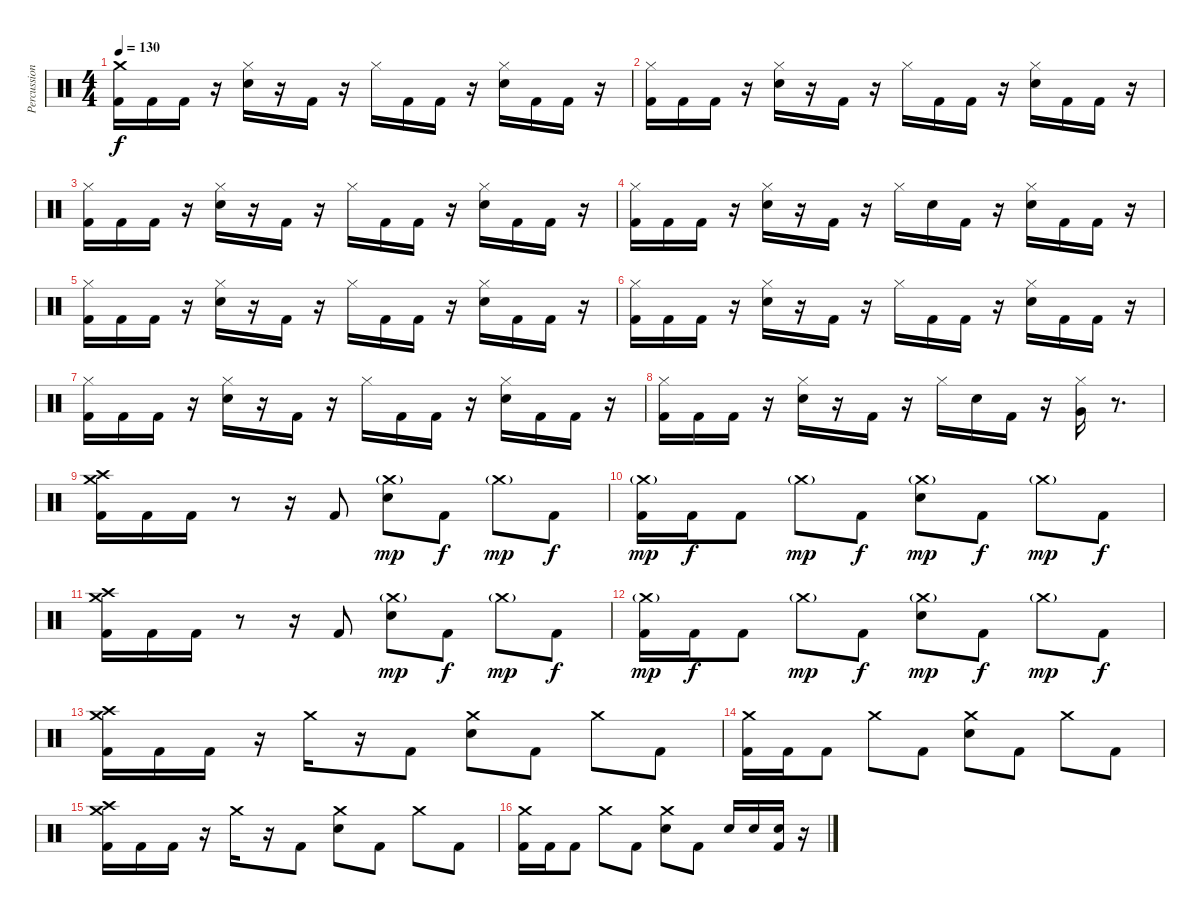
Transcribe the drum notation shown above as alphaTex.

\track ("Percussion" "Percussion") {instrument percussion}
\staff {score}
\articulation defaults
\ts (4 4)
\tempo 130
\clef neutral
\ks c
("Crash medium (hit)" "Kick (hit) 2").16{dy f} "Kick (hit) 2".16 "Kick (hit) 2".16 r.16 ("Hi-Hat (closed)" "Electric Snare (hit)").16 r.16 "Kick (hit) 2".16 r.16 "Hi-Hat (closed)".16 "Kick (hit) 2".16 "Kick (hit) 2".16 r.16 ("Hi-Hat (closed)" "Electric Snare (hit)").16 "Kick (hit) 2".16 "Kick (hit) 2".16 r.16 |
("Hi-Hat (closed)" "Kick (hit) 2").16 "Kick (hit) 2".16 "Kick (hit) 2".16 r.16 ("Hi-Hat (closed)" "Electric Snare (hit)").16 r.16 "Kick (hit) 2".16 r.16 "Hi-Hat (closed)".16 "Kick (hit) 2".16 "Kick (hit) 2".16 r.16 ("Hi-Hat (closed)" "Electric Snare (hit)").16 "Kick (hit) 2".16 "Kick (hit) 2".16 r.16 |
("Hi-Hat (closed)" "Kick (hit) 2").16 "Kick (hit) 2".16 "Kick (hit) 2".16 r.16 ("Hi-Hat (closed)" "Electric Snare (hit)").16 r.16 "Kick (hit) 2".16 r.16 "Hi-Hat (closed)".16 "Kick (hit) 2".16 "Kick (hit) 2".16 r.16 ("Hi-Hat (closed)" "Electric Snare (hit)").16 "Kick (hit) 2".16 "Kick (hit) 2".16 r.16 |
("Hi-Hat (closed)" "Kick (hit) 2").16 "Kick (hit) 2".16 "Kick (hit) 2".16 r.16 ("Hi-Hat (closed)" "Electric Snare (hit)").16 r.16 "Kick (hit) 2".16 r.16 "Hi-Hat (closed)".16 "Electric Snare (hit)".16 "Kick (hit) 2".16 r.16 ("Hi-Hat (closed)" "Electric Snare (hit)").16 "Kick (hit) 2".16 "Kick (hit) 2".16 r.16 |
("Hi-Hat (closed)" "Kick (hit) 2").16 "Kick (hit) 2".16 "Kick (hit) 2".16 r.16 ("Hi-Hat (closed)" "Electric Snare (hit)").16 r.16 "Kick (hit) 2".16 r.16 "Hi-Hat (closed)".16 "Kick (hit) 2".16 "Kick (hit) 2".16 r.16 ("Hi-Hat (closed)" "Electric Snare (hit)").16 "Kick (hit) 2".16 "Kick (hit) 2".16 r.16 |
("Hi-Hat (closed)" "Kick (hit) 2").16 "Kick (hit) 2".16 "Kick (hit) 2".16 r.16 ("Hi-Hat (closed)" "Electric Snare (hit)").16 r.16 "Kick (hit) 2".16 r.16 "Hi-Hat (closed)".16 "Kick (hit) 2".16 "Kick (hit) 2".16 r.16 ("Hi-Hat (closed)" "Electric Snare (hit)").16 "Kick (hit) 2".16 "Kick (hit) 2".16 r.16 |
("Hi-Hat (closed)" "Kick (hit) 2").16 "Kick (hit) 2".16 "Kick (hit) 2".16 r.16 ("Hi-Hat (closed)" "Electric Snare (hit)").16 r.16 "Kick (hit) 2".16 r.16 "Hi-Hat (closed)".16 "Kick (hit) 2".16 "Kick (hit) 2".16 r.16 ("Hi-Hat (closed)" "Electric Snare (hit)").16 "Kick (hit) 2".16 "Kick (hit) 2".16 r.16 |
("Hi-Hat (closed)" "Kick (hit) 2").16 "Kick (hit) 2".16 "Kick (hit) 2".16 r.16 ("Hi-Hat (closed)" "Electric Snare (hit)").16 r.16 "Kick (hit) 2".16 r.16 "Hi-Hat (closed)".16 "Electric Snare (hit)".16 "Kick (hit) 2".16 r.16 ("Hi-Hat (closed)" "Very Low Tom (hit)").16 r.8{d} |
("Crash medium (hit)" "Crash high (hit)" "Kick (hit) 2").16 "Kick (hit) 2".16 "Kick (hit) 2".16 r.8 r.16 "Kick (hit) 2".8 ("Crash medium (hit)"{g} "Electric Snare (hit)").8{dy mp} "Kick (hit) 2".8{dy f} "Crash medium (hit)"{g}.8{dy mp} "Kick (hit) 2".8{dy f} |
("Crash medium (hit)"{g} "Kick (hit) 2").16{dy mp} "Kick (hit) 2".16{dy f} "Kick (hit) 2".8 "Crash medium (hit)"{g}.8{dy mp} "Kick (hit) 2".8{dy f} ("Crash medium (hit)"{g} "Electric Snare (hit)").8{dy mp} "Kick (hit) 2".8{dy f} "Crash medium (hit)"{g}.8{dy mp} "Kick (hit) 2".8{dy f} |
("Crash medium (hit)" "Crash high (hit)" "Kick (hit) 2").16 "Kick (hit) 2".16 "Kick (hit) 2".16 r.8 r.16 "Kick (hit) 2".8 ("Crash medium (hit)"{g} "Electric Snare (hit)").8{dy mp} "Kick (hit) 2".8{dy f} "Crash medium (hit)"{g}.8{dy mp} "Kick (hit) 2".8{dy f} |
("Crash medium (hit)"{g} "Kick (hit) 2").16{dy mp} "Kick (hit) 2".16{dy f} "Kick (hit) 2".8 "Crash medium (hit)"{g}.8{dy mp} "Kick (hit) 2".8{dy f} ("Crash medium (hit)"{g} "Electric Snare (hit)").8{dy mp} "Kick (hit) 2".8{dy f} "Crash medium (hit)"{g}.8{dy mp} "Kick (hit) 2".8{dy f} |
("Crash medium (hit)" "Crash high (hit)" "Kick (hit) 2").16 "Kick (hit) 2".16 "Kick (hit) 2".16 r.16 "Crash medium (hit)".16 r.16 "Kick (hit) 2".8 ("Crash medium (hit)" "Electric Snare (hit)").8 "Kick (hit) 2".8 "Crash medium (hit)".8 "Kick (hit) 2".8 |
("Crash medium (hit)" "Kick (hit) 2").16 "Kick (hit) 2".16 "Kick (hit) 2".8 "Crash medium (hit)".8 "Kick (hit) 2".8 ("Crash medium (hit)" "Electric Snare (hit)").8 "Kick (hit) 2".8 "Crash medium (hit)".8 "Kick (hit) 2".8 |
("Crash medium (hit)" "Crash high (hit)" "Kick (hit) 2").16 "Kick (hit) 2".16 "Kick (hit) 2".16 r.16 "Crash medium (hit)".16 r.16 "Kick (hit) 2".8 ("Crash medium (hit)" "Electric Snare (hit)").8 "Kick (hit) 2".8 "Crash medium (hit)".8 "Kick (hit) 2".8 |
("Crash medium (hit)" "Kick (hit) 2").16 "Kick (hit) 2".16 "Kick (hit) 2".8 "Crash medium (hit)".8 "Kick (hit) 2".8 ("Crash medium (hit)" "Electric Snare (hit)").8 "Kick (hit) 2".8 "Electric Snare (hit)".16 "Electric Snare (hit)".16 ("Electric Snare (hit)" "Kick (hit) 2").16 r.16
